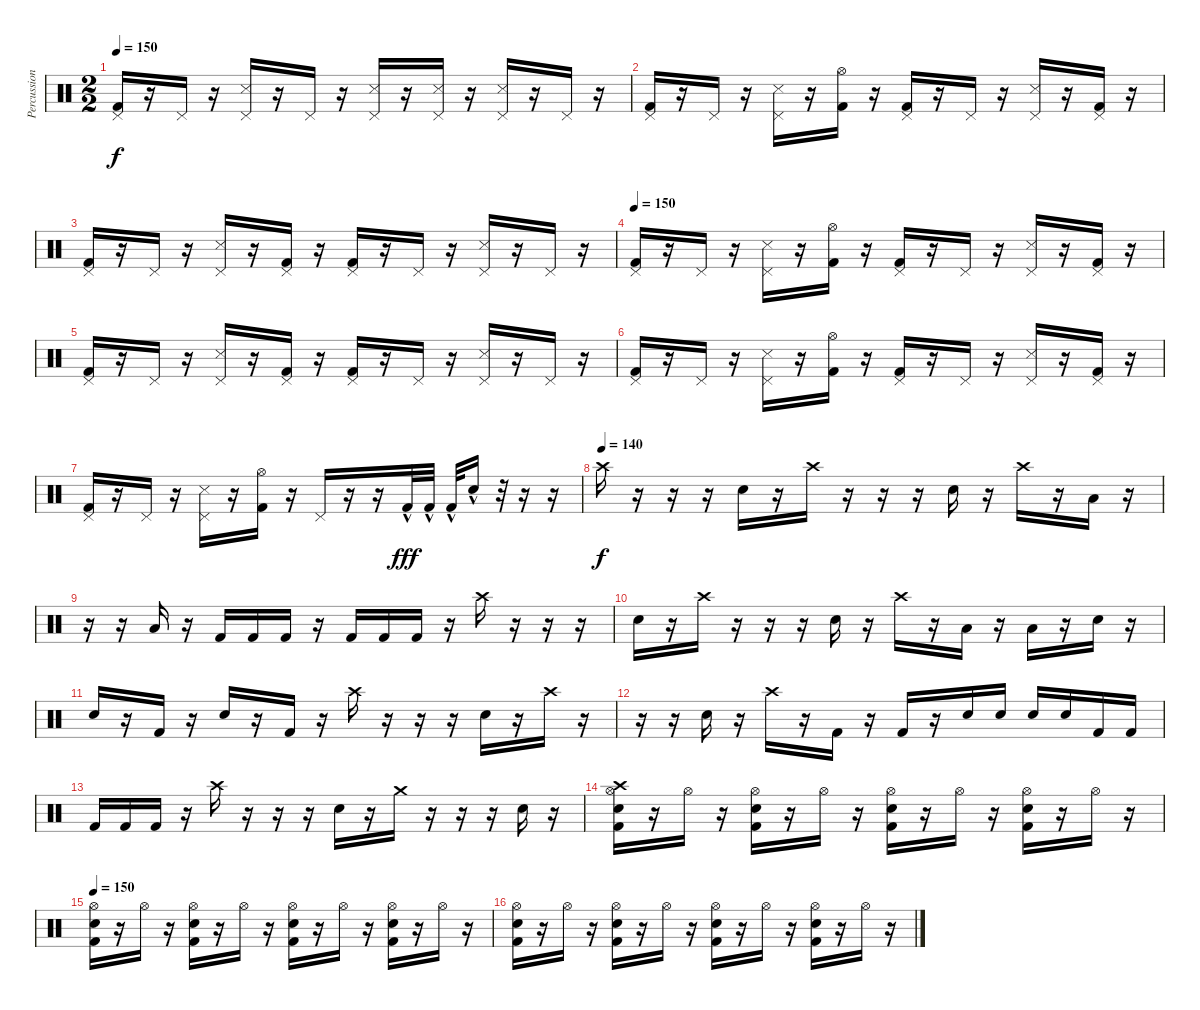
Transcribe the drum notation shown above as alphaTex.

\track ("Percussion" "Percussion") {instrument percussion}
\staff {score}
\articulation defaults
\ts (2 2)
\tempo 150
\clef neutral
\ks c
("Pedal Hi-Hat (hit)" "Kick (hit) 2").16{dy f} r.16 "Pedal Hi-Hat (hit)".16 r.16 ("Pedal Hi-Hat (hit)" "Metronome (hit)").16 r.16 "Pedal Hi-Hat (hit)".16 r.16 ("Pedal Hi-Hat (hit)" "Metronome (hit)").16 r.16 ("Pedal Hi-Hat (hit)" "Metronome (hit)").16 r.16 ("Pedal Hi-Hat (hit)" "Metronome (hit)").16 r.16 "Pedal Hi-Hat (hit)".16 r.16 |
("Pedal Hi-Hat (hit)" "Kick (hit) 2").16 r.16 "Pedal Hi-Hat (hit)".16 r.16 ("Pedal Hi-Hat (hit)" "Metronome (hit)").16 r.16 ("Hi-Hat (open)" "Kick (hit) 2").16 r.16 ("Pedal Hi-Hat (hit)" "Kick (hit) 2").16 r.16 "Pedal Hi-Hat (hit)".16 r.16 ("Pedal Hi-Hat (hit)" "Metronome (hit)").16 r.16 ("Pedal Hi-Hat (hit)" "Kick (hit) 2").16 r.16 |
("Pedal Hi-Hat (hit)" "Kick (hit) 2").16 r.16 "Pedal Hi-Hat (hit)".16 r.16 ("Pedal Hi-Hat (hit)" "Metronome (hit)").16 r.16 ("Pedal Hi-Hat (hit)" "Kick (hit) 2").16 r.16 ("Pedal Hi-Hat (hit)" "Kick (hit) 2").16 r.16 "Pedal Hi-Hat (hit)".16 r.16 ("Pedal Hi-Hat (hit)" "Metronome (hit)").16 r.16 "Pedal Hi-Hat (hit)".16 r.16 |
\tempo 150
("Pedal Hi-Hat (hit)" "Kick (hit) 2").16 r.16 "Pedal Hi-Hat (hit)".16 r.16 ("Pedal Hi-Hat (hit)" "Metronome (hit)").16 r.16 ("Hi-Hat (open)" "Kick (hit) 2").16 r.16 ("Pedal Hi-Hat (hit)" "Kick (hit) 2").16 r.16 "Pedal Hi-Hat (hit)".16 r.16 ("Pedal Hi-Hat (hit)" "Metronome (hit)").16 r.16 ("Pedal Hi-Hat (hit)" "Kick (hit) 2").16 r.16 |
("Pedal Hi-Hat (hit)" "Kick (hit) 2").16 r.16 "Pedal Hi-Hat (hit)".16 r.16 ("Pedal Hi-Hat (hit)" "Metronome (hit)").16 r.16 ("Pedal Hi-Hat (hit)" "Kick (hit) 2").16 r.16 ("Pedal Hi-Hat (hit)" "Kick (hit) 2").16 r.16 "Pedal Hi-Hat (hit)".16 r.16 ("Pedal Hi-Hat (hit)" "Metronome (hit)").16 r.16 "Pedal Hi-Hat (hit)".16 r.16 |
("Pedal Hi-Hat (hit)" "Kick (hit) 2").16 r.16 "Pedal Hi-Hat (hit)".16 r.16 ("Pedal Hi-Hat (hit)" "Metronome (hit)").16 r.16 ("Hi-Hat (open)" "Kick (hit) 2").16 r.16 ("Pedal Hi-Hat (hit)" "Kick (hit) 2").16 r.16 "Pedal Hi-Hat (hit)".16 r.16 ("Pedal Hi-Hat (hit)" "Metronome (hit)").16 r.16 ("Pedal Hi-Hat (hit)" "Kick (hit) 2").16 r.16 |
("Pedal Hi-Hat (hit)" "Kick (hit) 2").16 r.16 "Pedal Hi-Hat (hit)".16 r.16 ("Pedal Hi-Hat (hit)" "Metronome (hit)").16 r.16 ("Hi-Hat (open)" "Kick (hit) 2").16 r.16 "Pedal Hi-Hat (hit)".16 r.16 r.16 "Kick (hit) 2"{hac}.32{dy fff} "Kick (hit) 2"{hac}.32 "Kick (hit) 2"{hac}.32 "Snare (hit) 2"{hac}.16 r.32 r.16 r.16 |
\tempo (140)
"Crash high (hit)".16{dy f} r.16 r.16 r.16 "Snare (hit) 2".16 r.16 "Crash high (hit)".16 r.16 r.16 r.16 "Snare (hit) 2".16 r.16 "Crash high (hit)".16 r.16 "Low Floor Tom (hit)".16 r.16 |
r.16 r.16 "Low Floor Tom (hit)".16 r.16 "Kick (hit) 2".16 "Kick (hit) 2".16 "Kick (hit) 2".16 r.16 "Kick (hit) 2".16 "Kick (hit) 2".16 "Kick (hit) 2".16 r.16 "Crash high (hit)".16 r.16 r.16 r.16 |
"Snare (hit) 2".16 r.16 "Crash high (hit)".16 r.16 r.16 r.16 "Snare (hit) 2".16 r.16 "Crash high (hit)".16 r.16 "Low Floor Tom (hit)".16 r.16 "Low Floor Tom (hit)".16 r.16 "Snare (hit) 2".16 r.16 |
"Snare (hit) 2".16 r.16 "Kick (hit) 2".16 r.16 "Snare (hit) 2".16 r.16 "Kick (hit) 2".16 r.16 "Crash high (hit)".16 r.16 r.16 r.16 "Snare (hit) 2".16 r.16 "Crash high (hit)".16 r.16 |
r.16 r.16 "Snare (hit) 2".16 r.16 "Crash high (hit)".16 r.16 "Kick (hit) 2".16 r.16 "Kick (hit) 2".16 r.16 "Snare (hit) 2".16 "Snare (hit) 2".16 "Snare (hit) 2".16 "Snare (hit) 2".16 "Kick (hit) 2".16 "Kick (hit) 2".16 |
"Kick (hit) 2".16 "Kick (hit) 2".16 "Kick (hit) 2".16 r.16 "Crash high (hit)".16 r.16 r.16 r.16 "Snare (hit) 2".16 r.16 "Crash medium (hit)".16 r.16 r.16 r.16 "Snare (hit) 2".16 r.16 |
("Crash high (hit)" "Hi-Hat (open)" "Kick (hit) 2" "Snare (hit) 2").16 r.16 "Hi-Hat (open)".16 r.16 ("Hi-Hat (open)" "Kick (hit) 2" "Snare (hit) 2").16 r.16 "Hi-Hat (open)".16 r.16 ("Hi-Hat (open)" "Kick (hit) 2" "Snare (hit) 2").16 r.16 "Hi-Hat (open)".16 r.16 ("Hi-Hat (open)" "Kick (hit) 2" "Snare (hit) 2").16 r.16 "Hi-Hat (open)".16 r.16 |
\tempo 150
("Hi-Hat (open)" "Kick (hit) 2" "Snare (hit) 2").16 r.16 "Hi-Hat (open)".16 r.16 ("Hi-Hat (open)" "Kick (hit) 2" "Snare (hit) 2").16 r.16 "Hi-Hat (open)".16 r.16 ("Hi-Hat (open)" "Kick (hit) 2" "Snare (hit) 2").16 r.16 "Hi-Hat (open)".16 r.16 ("Hi-Hat (open)" "Kick (hit) 2" "Snare (hit) 2").16 r.16 "Hi-Hat (open)".16 r.16 |
("Hi-Hat (open)" "Kick (hit) 2" "Snare (hit) 2").16 r.16 "Hi-Hat (open)".16 r.16 ("Hi-Hat (open)" "Kick (hit) 2" "Snare (hit) 2").16 r.16 "Hi-Hat (open)".16 r.16 ("Hi-Hat (open)" "Kick (hit) 2" "Snare (hit) 2").16 r.16 "Hi-Hat (open)".16 r.16 ("Hi-Hat (open)" "Kick (hit) 2" "Snare (hit) 2").16 r.16 "Hi-Hat (open)".16 r.16
